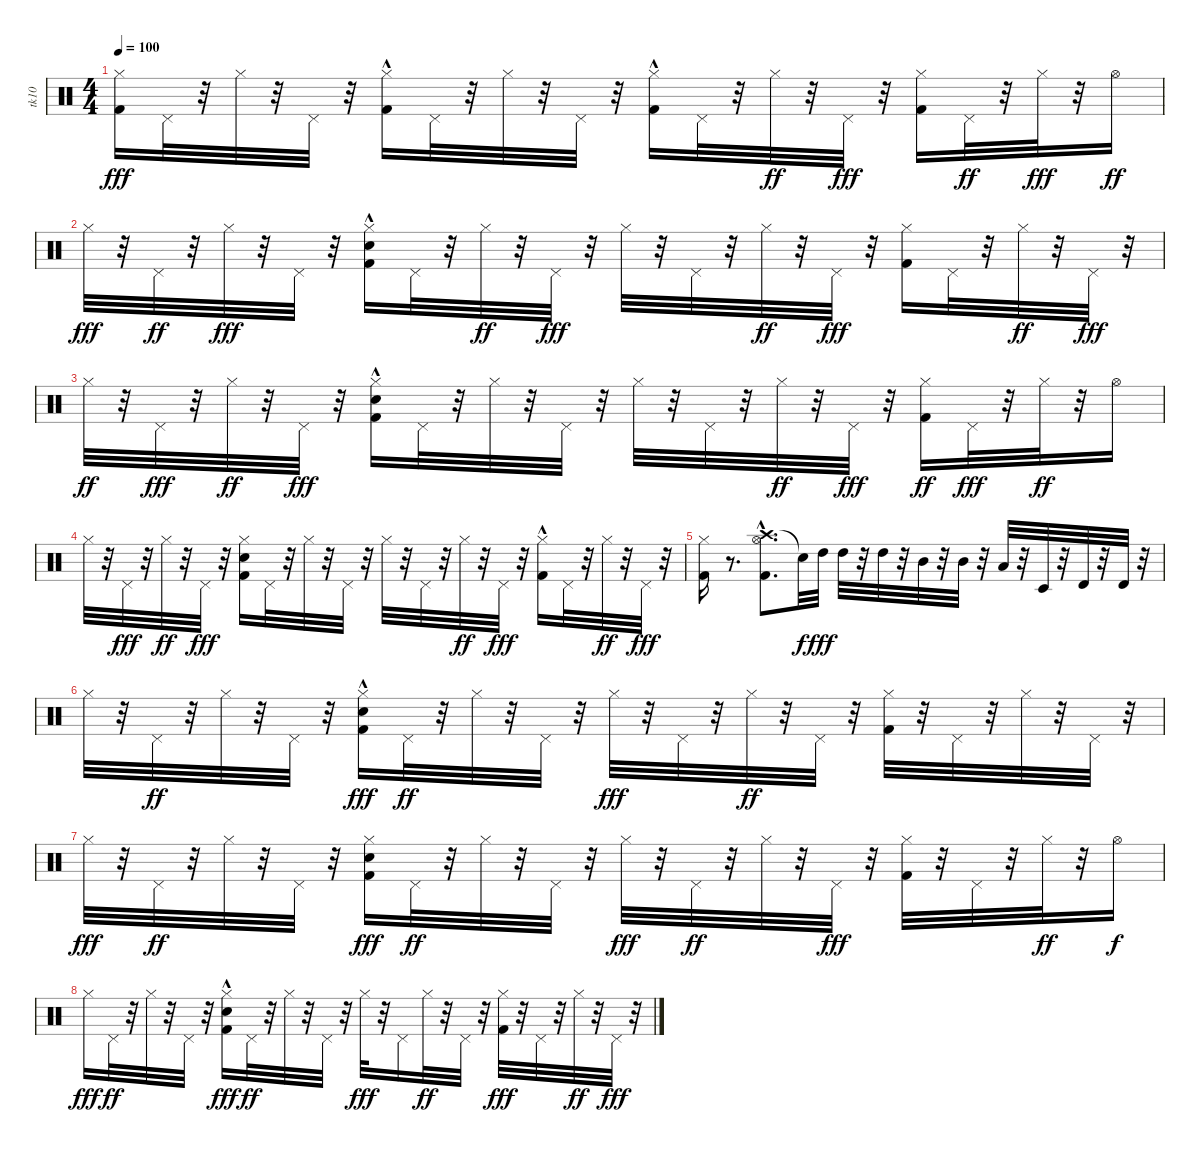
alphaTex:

\track ("tk10" "tk10") {instrument percussion}
\staff {score}
\articulation defaults
\ts (4 4)
\tempo 100
\clef neutral
\ks c
("Kick (hit) 2" "Hi-Hat (closed)").16{dy fff} "Pedal Hi-Hat (hit)".32 r.32 "Hi-Hat (closed)".32 r.32 "Pedal Hi-Hat (hit)".32 r.32 ("Kick (hit) 2"{hac} "Hi-Hat (closed)").16 "Pedal Hi-Hat (hit)".32 r.32 "Hi-Hat (closed)".32 r.32 "Pedal Hi-Hat (hit)".32 r.32 ("Kick (hit) 2"{hac} "Hi-Hat (closed)").16 "Pedal Hi-Hat (hit)".32 r.32 "Hi-Hat (closed)".32{dy ff} r.32 "Pedal Hi-Hat (hit)".32{dy fff} r.32 ("Kick (hit) 2" "Hi-Hat (closed)").16 "Pedal Hi-Hat (hit)".32{dy ff} r.32 "Hi-Hat (closed)".32{dy fff} r.32 "Hi-Hat (open)".16{dy ff} |
"Hi-Hat (closed)".32{dy fff} r.32 "Pedal Hi-Hat (hit)".32{dy ff} r.32 "Hi-Hat (closed)".32{dy fff} r.32 "Pedal Hi-Hat (hit)".32 r.32 ("Kick (hit) 2"{hac} "Electric Snare (hit)" "Hi-Hat (closed)").16 "Pedal Hi-Hat (hit)".32 r.32 "Hi-Hat (closed)".32{dy ff} r.32 "Pedal Hi-Hat (hit)".32{dy fff} r.32 "Hi-Hat (closed)".32 r.32 "Pedal Hi-Hat (hit)".32 r.32 "Hi-Hat (closed)".32{dy ff} r.32 "Pedal Hi-Hat (hit)".32{dy fff} r.32 ("Kick (hit) 2" "Hi-Hat (closed)").16 "Pedal Hi-Hat (hit)".32 r.32 "Hi-Hat (closed)".32{dy ff} r.32 "Pedal Hi-Hat (hit)".32{dy fff} r.32 |
"Hi-Hat (closed)".32{dy ff} r.32 "Pedal Hi-Hat (hit)".32{dy fff} r.32 "Hi-Hat (closed)".32{dy ff} r.32 "Pedal Hi-Hat (hit)".32{dy fff} r.32 ("Kick (hit) 2" "Electric Snare (hit)"{hac} "Hi-Hat (closed)").16 "Pedal Hi-Hat (hit)".32 r.32 "Hi-Hat (closed)".32 r.32 "Pedal Hi-Hat (hit)".32 r.32 "Hi-Hat (closed)".32 r.32 "Pedal Hi-Hat (hit)".32 r.32 "Hi-Hat (closed)".32{dy ff} r.32 "Pedal Hi-Hat (hit)".32{dy fff} r.32 ("Kick (hit) 2" "Hi-Hat (closed)").16{dy ff} "Pedal Hi-Hat (hit)".32{dy fff} r.32 "Hi-Hat (closed)".32{dy ff} r.32 "Hi-Hat (open)".16 |
"Hi-Hat (closed)".32 r.32 "Pedal Hi-Hat (hit)".32{dy fff} r.32 "Hi-Hat (closed)".32{dy ff} r.32 "Pedal Hi-Hat (hit)".32{dy fff} r.32 ("Kick (hit) 2" "Electric Snare (hit)" "Hi-Hat (closed)").16 "Pedal Hi-Hat (hit)".32 r.32 "Hi-Hat (closed)".32 r.32 "Pedal Hi-Hat (hit)".32 r.32 "Hi-Hat (closed)".32 r.32 "Pedal Hi-Hat (hit)".32 r.32 "Hi-Hat (closed)".32{dy ff} r.32 "Pedal Hi-Hat (hit)".32{dy fff} r.32 ("Hi-Hat (closed)" "Kick (hit) 2"{hac}).16 "Pedal Hi-Hat (hit)".32 r.32 "Hi-Hat (closed)".32{dy ff} r.32 "Pedal Hi-Hat (hit)".32{dy fff} r.32 |
("Hi-Hat (closed)" "Kick (hit) 2").16 r.8{d} ("Crash high (hit)"{hac} "Kick (hit) 2" "Hi-Hat (open)"{hac}).8{d} "Snare (hit)"{t}.32{dy f} "High Tom (hit)".32{dy fff} "High Tom (hit)".32 r.32 "High Tom (hit)".32 r.32 "Mid Tom (hit)".32 r.32 "Mid Tom (hit)".32 r.32 "Low Tom (hit)".32 r.32 "Timbale low (hit)".32 r.32 "Timbale high (hit)".32 r.32 "Timbale high (hit)".32 r.32 |
"Hi-Hat (closed)".32 r.32 "Pedal Hi-Hat (hit)".32{dy ff} r.32 "Hi-Hat (closed)".32 r.32 "Pedal Hi-Hat (hit)".32 r.32 ("Kick (hit) 2"{hac} "Hi-Hat (closed)" "Snare (hit) 2"{hac}).16{dy fff} "Pedal Hi-Hat (hit)".32{dy ff} r.32 "Hi-Hat (closed)".32 r.32 "Pedal Hi-Hat (hit)".32 r.32 "Hi-Hat (closed)".32{dy fff} r.32 "Pedal Hi-Hat (hit)".32 r.32 "Hi-Hat (closed)".32{dy ff} r.32 "Pedal Hi-Hat (hit)".32 r.32 ("Kick (hit) 2" "Hi-Hat (closed)").32 r.32 "Pedal Hi-Hat (hit)".32 r.32 "Hi-Hat (closed)".32 r.32 "Pedal Hi-Hat (hit)".32 r.32 |
"Hi-Hat (closed)".32{dy fff} r.32 "Pedal Hi-Hat (hit)".32{dy ff} r.32 "Hi-Hat (closed)".32 r.32 "Pedal Hi-Hat (hit)".32 r.32 ("Kick (hit) 2" "Hi-Hat (closed)" "Snare (hit) 2").16{dy fff} "Pedal Hi-Hat (hit)".32{dy ff} r.32 "Hi-Hat (closed)".32 r.32 "Pedal Hi-Hat (hit)".32 r.32 "Hi-Hat (closed)".32{dy fff} r.32 "Pedal Hi-Hat (hit)".32{dy ff} r.32 "Hi-Hat (closed)".32 r.32 "Pedal Hi-Hat (hit)".32{dy fff} r.32 ("Kick (hit) 2" "Hi-Hat (closed)").32 r.32 "Pedal Hi-Hat (hit)".32 r.32 "Hi-Hat (closed)".32{dy ff} r.32 "Hi-Hat (open)".16{dy f} |
"Hi-Hat (closed)".16{dy fff} "Pedal Hi-Hat (hit)".32{dy ff} r.32 "Hi-Hat (closed)".32 r.32 "Pedal Hi-Hat (hit)".32 r.32 ("Kick (hit) 2" "Hi-Hat (closed)" "Snare (hit) 2"{hac}).16{dy fff} "Pedal Hi-Hat (hit)".32{dy ff} r.32 "Hi-Hat (closed)".32 r.32 "Pedal Hi-Hat (hit)".32 r.32 "Hi-Hat (closed)".32{dy fff} r.32 "Pedal Hi-Hat (hit)".16 "Hi-Hat (closed)".32{dy ff} r.32 "Pedal Hi-Hat (hit)".32 r.32 ("Hi-Hat (closed)" "Kick (hit) 2").32{dy fff} r.32 "Pedal Hi-Hat (hit)".32 r.32 "Hi-Hat (closed)".32{dy ff} r.32 "Pedal Hi-Hat (hit)".32{dy fff} r.32
